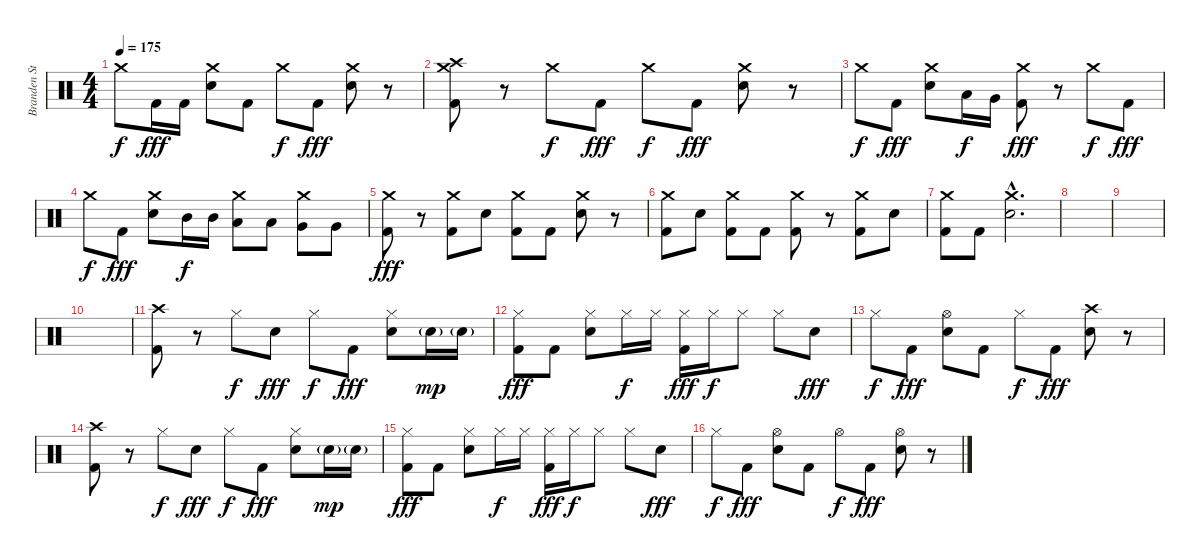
\track ("Branden Steineckert (Drums)" "Branden St") {instrument percussion}
\staff {score}
\articulation defaults
\ts (4 4)
\tempo 175
\clef neutral
\ks c "Crash medium (hit)".8{dy f} "Kick (hit) 2".16{dy fff} "Kick (hit) 2".16
("Electric Snare (hit)" "Crash medium (hit)").8 "Kick (hit) 2".8 "Crash medium (hit)".8{dy f} "Kick (hit) 2".8{dy fff} ("Electric Snare (hit)" "Crash medium (hit)").8 r.8 |
("Kick (hit) 2" "Crash high (hit)" "Crash medium (hit)").8 r.8 "Crash medium (hit)".8{dy f} "Kick (hit) 2".8{dy fff} "Crash medium (hit)".8{dy f} "Kick (hit) 2".8{dy fff} ("Electric Snare (hit)" "Crash medium (hit)").8 r.8 |
"Crash medium (hit)".8{dy f} "Kick (hit) 2".8{dy fff} ("Electric Snare (hit)" "Crash medium (hit)").8 "Low Tom (hit)".16{dy f} "Very Low Tom (hit)".16 ("Kick (hit) 2" "Crash medium (hit)").8{dy fff} r.8 "Crash medium (hit)".8{dy f} "Kick (hit) 2".8{dy fff} |
"Crash medium (hit)".8{dy f} "Kick (hit) 2".8{dy fff} ("Electric Snare (hit)" "Crash medium (hit)").8 "Mid Tom (hit)".16{dy f} "Mid Tom (hit)".16 ("Low Tom (hit)" "Crash medium (hit)").8 "Low Tom (hit)".8 ("Very Low Tom (hit)" "Crash medium (hit)").8 "Very Low Tom (hit)".8 |
("Kick (hit) 2" "Crash medium (hit)").8{dy fff} r.8 ("Kick (hit) 2" "Crash medium (hit)").8 "Electric Snare (hit)".8 ("Kick (hit) 2" "Crash medium (hit)").8 "Kick (hit) 2".8 ("Electric Snare (hit)" "Crash medium (hit)").8 r.8 |
("Kick (hit) 2" "Crash medium (hit)").8 "Electric Snare (hit)".8 ("Kick (hit) 2" "Crash medium (hit)").8 "Kick (hit) 2".8 ("Kick (hit) 2" "Crash medium (hit)").8 r.8 ("Kick (hit) 2" "Crash medium (hit)").8 "Electric Snare (hit)".8 |
("Kick (hit) 2" "Crash medium (hit)").8 "Kick (hit) 2".8 ("Electric Snare (hit)"{hac} "Crash medium (hit)"{hac}).2{d} |
|
|
|
("Kick (hit) 2" "Crash high (hit)").8 r.8 "Hi-Hat (closed)".8{dy f} "Electric Snare (hit)".8{dy fff} "Hi-Hat (closed)".8{dy f} "Kick (hit) 2".8{dy fff} ("Electric Snare (hit)" "Hi-Hat (closed)").8 "Electric Snare (hit)"{g}.16{dy mp} "Electric Snare (hit)"{g}.16 |
("Kick (hit) 2" "Hi-Hat (closed)").8{dy fff} "Kick (hit) 2".8 ("Electric Snare (hit)" "Hi-Hat (closed)").8 "Hi-Hat (closed)".16{dy f} "Hi-Hat (closed)".16 ("Kick (hit) 2" "Hi-Hat (closed)").16{dy fff} "Hi-Hat (closed)".16{dy f} "Hi-Hat (closed)".8 "Hi-Hat (closed)".8 "Electric Snare (hit)".8{dy fff} |
"Hi-Hat (closed)".8{dy f} "Kick (hit) 2".8{dy fff} ("Electric Snare (hit)" "Hi-Hat (open)").8 "Kick (hit) 2".8 "Hi-Hat (closed)".8{dy f} "Kick (hit) 2".8{dy fff} ("Electric Snare (hit)" "Crash high (hit)").8 r.8 |
("Kick (hit) 2" "Crash high (hit)").8 r.8 "Hi-Hat (closed)".8{dy f} "Electric Snare (hit)".8{dy fff} "Hi-Hat (closed)".8{dy f} "Kick (hit) 2".8{dy fff} ("Electric Snare (hit)" "Hi-Hat (closed)").8 "Electric Snare (hit)"{g}.16{dy mp} "Electric Snare (hit)"{g}.16 |
("Kick (hit) 2" "Hi-Hat (closed)").8{dy fff} "Kick (hit) 2".8 ("Electric Snare (hit)" "Hi-Hat (closed)").8 "Hi-Hat (closed)".16{dy f} "Hi-Hat (closed)".16 ("Kick (hit) 2" "Hi-Hat (closed)").16{dy fff} "Hi-Hat (closed)".16{dy f} "Hi-Hat (closed)".8 "Hi-Hat (closed)".8 "Electric Snare (hit)".8{dy fff} |
"Hi-Hat (closed)".8{dy f} "Kick (hit) 2".8{dy fff} ("Electric Snare (hit)" "Hi-Hat (open)").8 "Kick (hit) 2".8 "Hi-Hat (open)".8{dy f} "Kick (hit) 2".8{dy fff} ("Electric Snare (hit)" "Hi-Hat (open)").8 r.8
